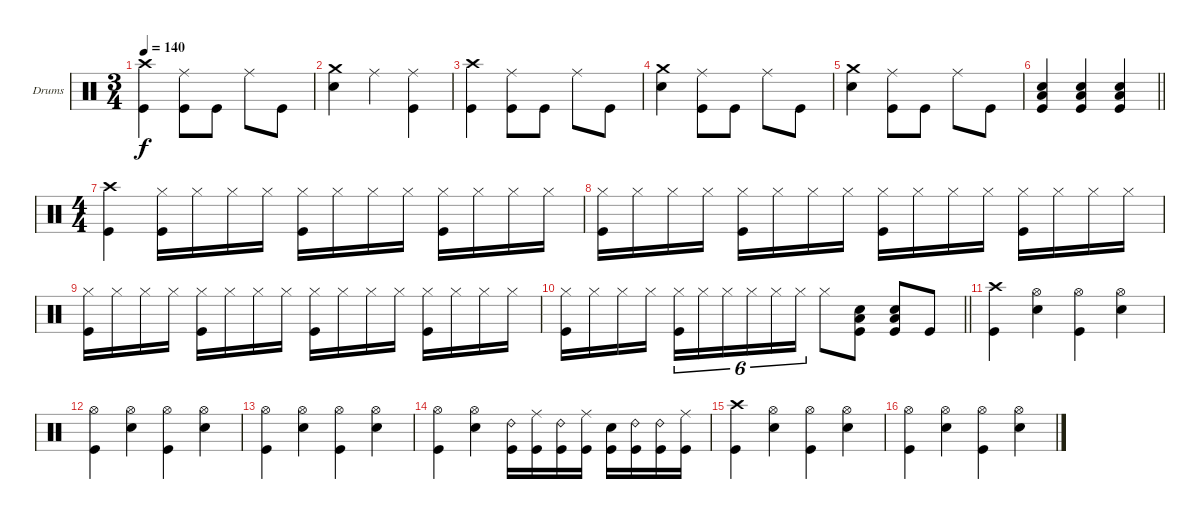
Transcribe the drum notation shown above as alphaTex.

\bracketExtendMode groupsimilarinstruments
\firstSystemTrackNameOrientation horizontal
\otherSystemsTrackNameOrientation horizontal
\track ("Drumkit" "Drums") {instrument percussion}
\staff {score}
\articulation defaults
\ts (3 4)
\tempo 140
\clef neutral
\ks c
("Crash high (hit)" "Kick (hit)").4{dy f} ("Ride (middle)" "Kick (hit)").8 "Kick (hit)".8 "Ride (middle)".8 "Kick (hit)".8 |
("Crash medium (hit)" "Snare (hit) 2").4 "Ride (middle)".4 ("Ride (middle)" "Kick (hit)").4 |
("Crash high (hit)" "Kick (hit)").4 ("Ride (middle)" "Kick (hit)").8 "Kick (hit)".8 "Ride (middle)".8 "Kick (hit)".8 |
("Crash medium (hit)" "Snare (hit) 2").4 ("Ride (middle)" "Kick (hit)").8 "Kick (hit)".8 "Ride (middle)".8 "Kick (hit)".8 |
("Crash medium (hit)" "Snare (hit) 2").4 ("Ride (middle)" "Kick (hit)").8 "Kick (hit)".8 "Ride (middle)".8 "Kick (hit)".8 |
\barLineRight lightlight
("Low Tom (hit)" "Snare (hit) 2" "Kick (hit)").4 ("Low Tom (hit)" "Snare (hit) 2" "Kick (hit)").4 ("Low Tom (hit)" "Snare (hit) 2" "Kick (hit)").4 |
\ts (4 4)
\beaming (8 2 2 2 2)
("Crash high (hit)" "Kick (hit)").4 ("Hi-Hat (closed)" "Kick (hit)").16 "Hi-Hat (closed)".16 "Hi-Hat (closed)".16 "Hi-Hat (closed)".16 ("Hi-Hat (closed)" "Kick (hit)").16 "Hi-Hat (closed)".16 "Hi-Hat (closed)".16 "Hi-Hat (closed)".16 ("Hi-Hat (closed)" "Kick (hit)").16 "Hi-Hat (closed)".16 "Hi-Hat (closed)".16 "Hi-Hat (closed)".16 |
("Hi-Hat (closed)" "Kick (hit)").16 "Hi-Hat (closed)".16 "Hi-Hat (closed)".16 "Hi-Hat (closed)".16 ("Hi-Hat (closed)" "Kick (hit)").16 "Hi-Hat (closed)".16 "Hi-Hat (closed)".16 "Hi-Hat (closed)".16 ("Hi-Hat (closed)" "Kick (hit)").16 "Hi-Hat (closed)".16 "Hi-Hat (closed)".16 "Hi-Hat (closed)".16 ("Hi-Hat (closed)" "Kick (hit)").16 "Hi-Hat (closed)".16 "Hi-Hat (closed)".16 "Hi-Hat (closed)".16 |
("Hi-Hat (closed)" "Kick (hit)").16 "Hi-Hat (closed)".16 "Hi-Hat (closed)".16 "Hi-Hat (closed)".16 ("Hi-Hat (closed)" "Kick (hit)").16 "Hi-Hat (closed)".16 "Hi-Hat (closed)".16 "Hi-Hat (closed)".16 ("Hi-Hat (closed)" "Kick (hit)").16 "Hi-Hat (closed)".16 "Hi-Hat (closed)".16 "Hi-Hat (closed)".16 ("Hi-Hat (closed)" "Kick (hit)").16 "Hi-Hat (closed)".16 "Hi-Hat (closed)".16 "Hi-Hat (closed)".16 |
\barLineRight lightlight
("Hi-Hat (closed)" "Kick (hit)").16 "Hi-Hat (closed)".16 "Hi-Hat (closed)".16 "Hi-Hat (closed)".16 ("Hi-Hat (closed)" "Kick (hit)").16{tu (6 4)} "Hi-Hat (closed)".16{tu (6 4)} "Hi-Hat (closed)".16{tu (6 4)} "Hi-Hat (closed)".16{tu (6 4)} "Hi-Hat (closed)".16{tu (6 4)} "Hi-Hat (closed)".16{tu (6 4)} "Hi-Hat (closed)".8 ("Low Tom (hit)" "Snare (hit) 2" "Kick (hit)").8 ("Low Tom (hit)" "Snare (hit) 2" "Kick (hit)").8 "Kick (hit)".8 |
("Crash high (hit)" "Kick (hit)").4 ("Hi-Hat (open)" "Snare (hit) 2").4 ("Hi-Hat (open)" "Kick (hit)").4 ("Hi-Hat (open)" "Snare (hit) 2").4 |
("Hi-Hat (open)" "Kick (hit)").4 ("Hi-Hat (open)" "Snare (hit) 2").4 ("Hi-Hat (open)" "Kick (hit)").4 ("Hi-Hat (open)" "Snare (hit) 2").4 |
("Hi-Hat (open)" "Kick (hit)").4 ("Hi-Hat (open)" "Snare (hit) 2").4 ("Hi-Hat (open)" "Kick (hit)").4 ("Hi-Hat (open)" "Snare (hit) 2").4 |
("Hi-Hat (open)" "Kick (hit)").4 ("Hi-Hat (open)" "Snare (hit) 2").4 ("Ride (bell) 2" "Kick (hit)").16 ("Ride (middle)" "Kick (hit)").16 ("Ride (bell) 2" "Kick (hit)").16 ("Ride (middle)" "Kick (hit)").16 ("Snare (hit) 2" "Kick (hit)").16 ("Ride (bell) 2" "Kick (hit)").16 ("Ride (bell) 2" "Kick (hit)").16 ("Ride (middle)" "Kick (hit)").16 |
("Crash high (hit)" "Kick (hit)").4 ("Hi-Hat (open)" "Snare (hit) 2").4 ("Hi-Hat (open)" "Kick (hit)").4 ("Hi-Hat (open)" "Snare (hit) 2").4 |
("Hi-Hat (open)" "Kick (hit)").4 ("Hi-Hat (open)" "Snare (hit) 2").4 ("Hi-Hat (open)" "Kick (hit)").4 ("Hi-Hat (open)" "Snare (hit) 2").4
